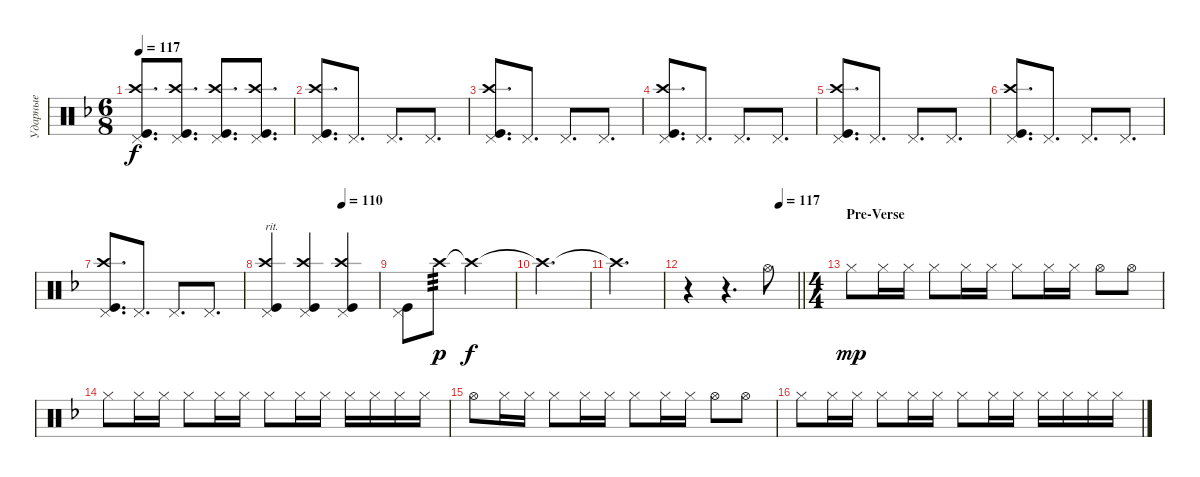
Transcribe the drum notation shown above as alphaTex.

\track ("Ударные" "Ударные") {instrument percussion}
\staff {score}
\articulation defaults
\ts (6 8)
\tempo 117
\clef neutral
\ks dminor
("Kick (hit)" "Crash high (hit)" "Pedal Hi-Hat (hit)").8{d dy f} ("Kick (hit)" "Crash high (hit)" "Pedal Hi-Hat (hit)").8{d} ("Kick (hit)" "Crash high (hit)" "Pedal Hi-Hat (hit)").8{d} ("Kick (hit)" "Crash high (hit)" "Pedal Hi-Hat (hit)").8{d} |
("Kick (hit)" "Crash high (hit)" "Pedal Hi-Hat (hit)").8{d} "Pedal Hi-Hat (hit)".8{d} "Pedal Hi-Hat (hit)".8{d} "Pedal Hi-Hat (hit)".8{d} |
("Kick (hit)" "Crash high (hit)" "Pedal Hi-Hat (hit)").8{d} "Pedal Hi-Hat (hit)".8{d} "Pedal Hi-Hat (hit)".8{d} "Pedal Hi-Hat (hit)".8{d} |
("Kick (hit)" "Crash high (hit)" "Pedal Hi-Hat (hit)").8{d} "Pedal Hi-Hat (hit)".8{d} "Pedal Hi-Hat (hit)".8{d} "Pedal Hi-Hat (hit)".8{d} |
("Kick (hit)" "Crash high (hit)" "Pedal Hi-Hat (hit)").8{d} "Pedal Hi-Hat (hit)".8{d} "Pedal Hi-Hat (hit)".8{d} "Pedal Hi-Hat (hit)".8{d} |
("Kick (hit)" "Crash high (hit)" "Pedal Hi-Hat (hit)").8{d} "Pedal Hi-Hat (hit)".8{d} "Pedal Hi-Hat (hit)".8{d} "Pedal Hi-Hat (hit)".8{d} |
("Kick (hit)" "Crash high (hit)" "Pedal Hi-Hat (hit)").8{d} "Pedal Hi-Hat (hit)".8{d} "Pedal Hi-Hat (hit)".8{d} "Pedal Hi-Hat (hit)".8{d} |
\tempo (110 0.6666666666666666)
("Kick (hit)" "Crash high (hit)" "Pedal Hi-Hat (hit)").4{txt "rit."} ("Kick (hit)" "Crash high (hit)" "Pedal Hi-Hat (hit)").4 ("Kick (hit)" "Crash high (hit)" "Pedal Hi-Hat (hit)").4 |
("Kick (hit)" "Pedal Hi-Hat (hit)").8 "Crash high (hit)".8{tp 3 dy p} "Crash high (hit)"{t}.2{dy f} |
"Crash high (hit)"{t}.2{d} |
"Crash high (hit)"{t}.2{d} |
\tempo (117 0.8333333333333334)
\barLineRight lightlight
r.4 r.4{d} "Hi-Hat (open)".8 |
\ts (4 4)
\section ("" "Pre-Verse")
"Hi-Hat (closed)".8{dy mp} "Hi-Hat (closed)".16 "Hi-Hat (closed)".16 "Hi-Hat (closed)".8 "Hi-Hat (closed)".16 "Hi-Hat (closed)".16 "Hi-Hat (closed)".8 "Hi-Hat (closed)".16 "Hi-Hat (closed)".16 "Hi-Hat (open)".8 "Hi-Hat (open)".8 |
"Hi-Hat (closed)".8 "Hi-Hat (closed)".16 "Hi-Hat (closed)".16 "Hi-Hat (closed)".8 "Hi-Hat (closed)".16 "Hi-Hat (closed)".16 "Hi-Hat (closed)".8 "Hi-Hat (closed)".16 "Hi-Hat (closed)".16 "Hi-Hat (closed)".16 "Hi-Hat (closed)".16 "Hi-Hat (closed)".16 "Hi-Hat (closed)".16 |
"Hi-Hat (open)".8 "Hi-Hat (closed)".16 "Hi-Hat (closed)".16 "Hi-Hat (closed)".8 "Hi-Hat (closed)".16 "Hi-Hat (closed)".16 "Hi-Hat (closed)".8 "Hi-Hat (closed)".16 "Hi-Hat (closed)".16 "Hi-Hat (open)".8 "Hi-Hat (open)".8 |
"Hi-Hat (closed)".8 "Hi-Hat (closed)".16 "Hi-Hat (closed)".16 "Hi-Hat (closed)".8 "Hi-Hat (closed)".16 "Hi-Hat (closed)".16 "Hi-Hat (closed)".8 "Hi-Hat (closed)".16 "Hi-Hat (closed)".16 "Hi-Hat (closed)".16 "Hi-Hat (closed)".16 "Hi-Hat (closed)".16 "Hi-Hat (closed)".16
